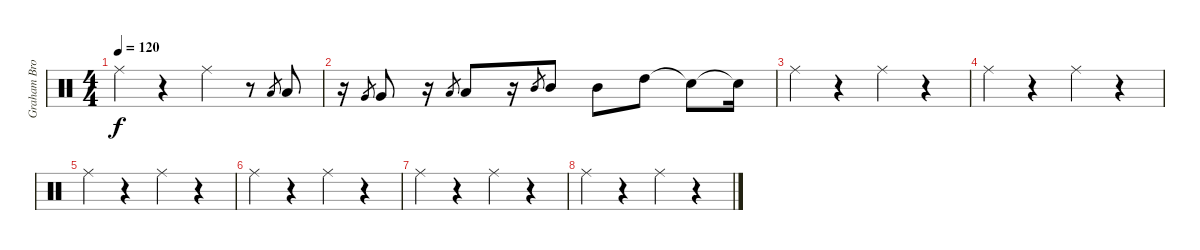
\track ("Graham Broad (Drums)" "Graham Bro") {instrument percussion}
\staff {score}
\articulation defaults
\ts (4 4)
\tempo 120
\clef neutral
\ks c "Ride (middle)".4{dy f}
r.4 "Ride (middle)".4 r.8 "Low Floor Tom (hit)".8{gr} "Low Floor Tom (hit)".8 |
r.16 "Very Low Tom (hit)".8{gr} "Very Low Tom (hit)".8 r.16 "Low Tom (hit)".8{gr} "Low Tom (hit)".8 r.16 "Mid Tom (hit)".8{gr} "Mid Tom (hit)".8 "Mid Tom (hit)".8 "High Tom (hit)".8 "Snare (hit)"{t}.8 "Snare (hit)"{t}.16 |
"Ride (middle)".4 r.4 "Ride (middle)".4 r.4 |
"Ride (middle)".4 r.4 "Ride (middle)".4 r.4 |
"Ride (middle)".4 r.4 "Ride (middle)".4 r.4 |
"Ride (middle)".4 r.4 "Ride (middle)".4 r.4 |
"Ride (middle)".4 r.4 "Ride (middle)".4 r.4 |
"Ride (middle)".4 r.4 "Ride (middle)".4 r.4
